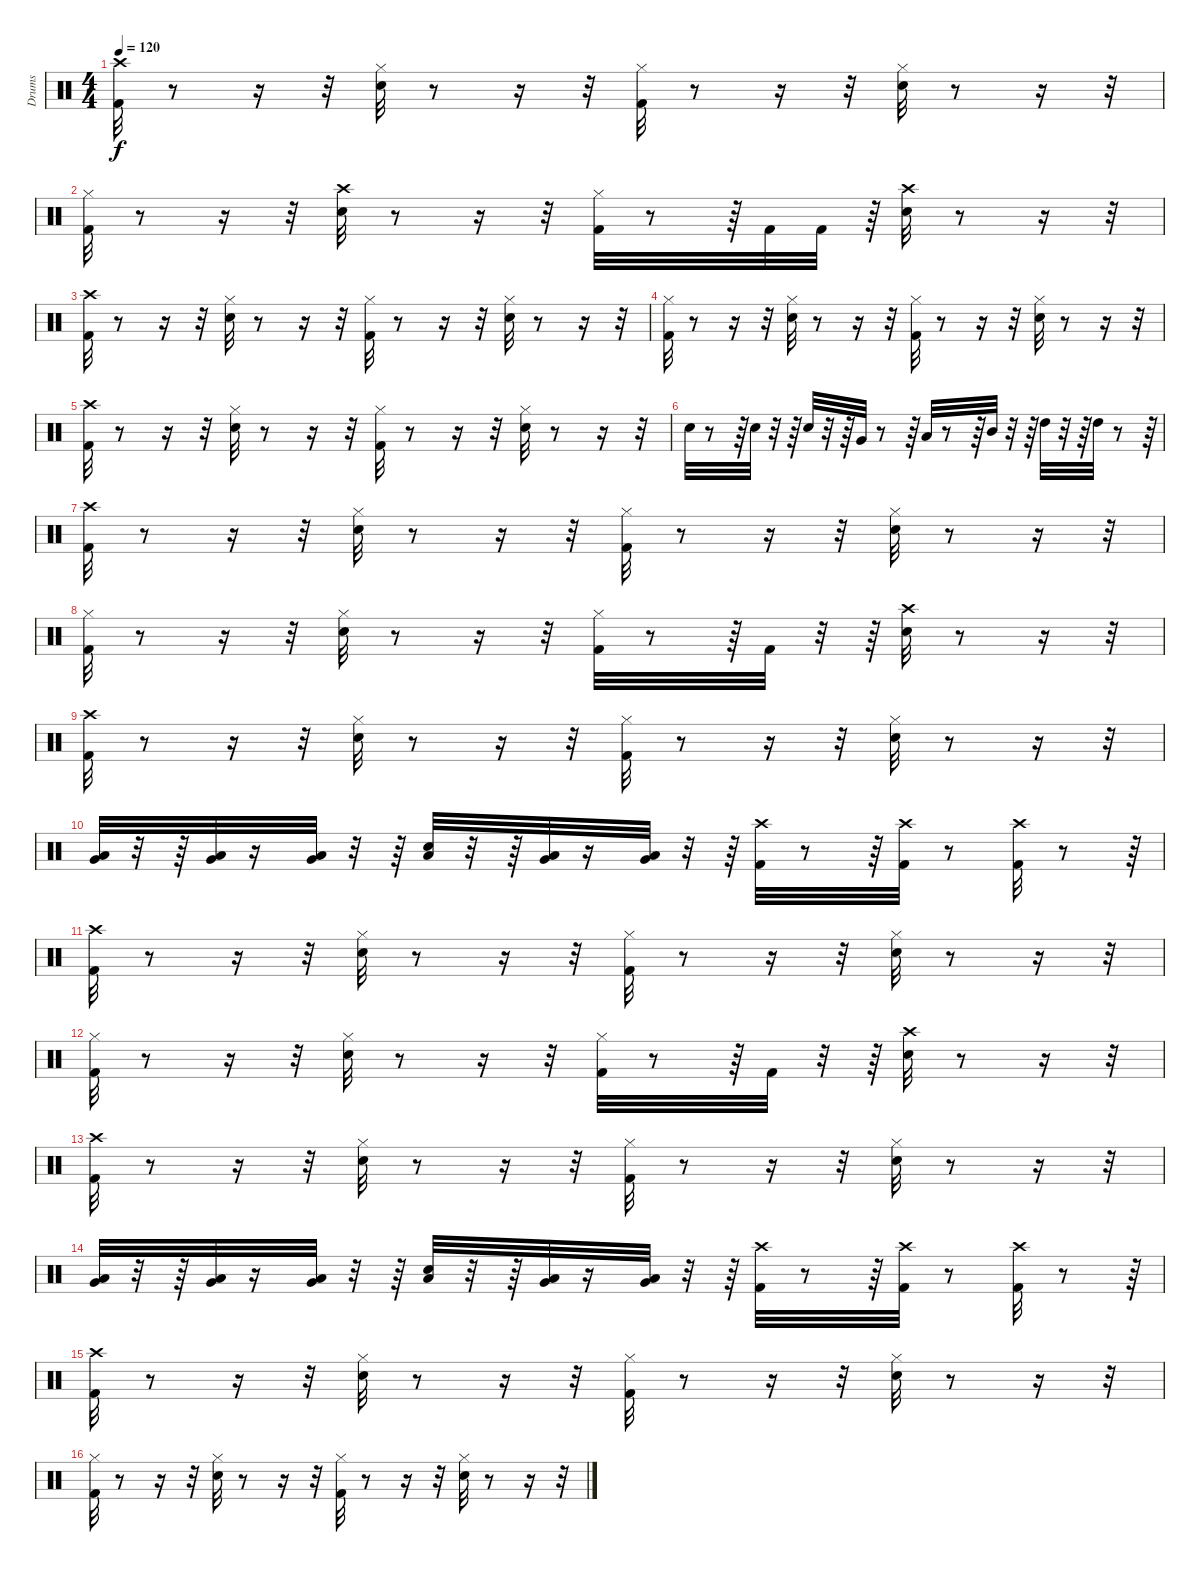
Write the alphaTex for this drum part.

\track ("Drums" "Drums") {instrument percussion}
\staff {score}
\articulation defaults
\ts (4 4)
\tempo 120
\clef neutral
\ks c
("Kick (hit) 2" "Crash high (hit)").32{dy f} r.8 r.16 r.32 ("Electric Snare (hit)" "Hi-Hat (closed)").32 r.8 r.16 r.32 ("Kick (hit) 2" "Hi-Hat (closed)").32 r.8 r.16 r.32 ("Electric Snare (hit)" "Hi-Hat (closed)").32 r.8 r.16 r.32 |
("Hi-Hat (closed)" "Kick (hit) 2").32 r.8 r.16 r.32 ("Crash high (hit)" "Electric Snare (hit)").32 r.8 r.16 r.32 ("Kick (hit) 2" "Hi-Hat (closed)").32 r.8 r.64 "Kick (hit) 2".32 "Kick (hit) 2".32 r.64 ("Crash high (hit)" "Electric Snare (hit)").32 r.8 r.16 r.32 |
("Kick (hit) 2" "Crash high (hit)").32 r.8 r.16 r.32 ("Electric Snare (hit)" "Hi-Hat (closed)").32 r.8 r.16 r.32 ("Kick (hit) 2" "Hi-Hat (closed)").32 r.8 r.16 r.32 ("Electric Snare (hit)" "Hi-Hat (closed)").32 r.8 r.16 r.32 |
("Kick (hit) 2" "Hi-Hat (closed)").32 r.8 r.16 r.32 ("Electric Snare (hit)" "Hi-Hat (closed)").32 r.8 r.16 r.32 ("Kick (hit) 2" "Hi-Hat (closed)").32 r.8 r.16 r.32 ("Electric Snare (hit)" "Hi-Hat (closed)").32 r.8 r.16 r.32 |
("Crash high (hit)" "Kick (hit) 2").32 r.8 r.16 r.32 ("Hi-Hat (closed)" "Electric Snare (hit)").32 r.8 r.16 r.32 ("Hi-Hat (closed)" "Kick (hit) 2").32 r.8 r.16 r.32 ("Hi-Hat (closed)" "Electric Snare (hit)").32 r.8 r.16 r.32 |
"Electric Snare (hit)".32 r.8 r.64 "Electric Snare (hit)".32 r.32 r.64 "Electric Snare (hit)".32 r.32 r.64 "Very Low Tom (hit)".32 r.8 r.64 "Low Tom (hit)".32 r.8 r.64 "Mid Tom (hit)".32 r.32 r.64 "High Tom (hit)".32 r.32 r.64 "High Tom (hit)".32 r.8 r.64 |
("Kick (hit) 2" "Crash high (hit)").32 r.8 r.16 r.32 ("Electric Snare (hit)" "Hi-Hat (closed)").32 r.8 r.16 r.32 ("Kick (hit) 2" "Hi-Hat (closed)").32 r.8 r.16 r.32 ("Electric Snare (hit)" "Hi-Hat (closed)").32 r.8 r.16 r.32 |
("Hi-Hat (closed)" "Kick (hit) 2").32 r.8 r.16 r.32 ("Electric Snare (hit)" "Hi-Hat (closed)").32 r.8 r.16 r.32 ("Kick (hit) 2" "Hi-Hat (closed)").32 r.8 r.64 "Kick (hit) 2".32 r.32 r.64 ("Crash high (hit)" "Electric Snare (hit)").32 r.8 r.16 r.32 |
("Kick (hit) 2" "Crash high (hit)").32 r.8 r.16 r.32 ("Electric Snare (hit)" "Hi-Hat (closed)").32 r.8 r.16 r.32 ("Kick (hit) 2" "Hi-Hat (closed)").32 r.8 r.16 r.32 ("Electric Snare (hit)" "Hi-Hat (closed)").32 r.8 r.16 r.32 |
("Low Tom (hit)" "Very Low Tom (hit)").32 r.32 r.64 ("Low Tom (hit)" "Very Low Tom (hit)").32 r.16 ("Low Tom (hit)" "Very Low Tom (hit)").32 r.32 r.64 ("Electric Snare (hit)" "Low Tom (hit)").32 r.32 r.64 ("Low Tom (hit)" "Very Low Tom (hit)").32 r.16 ("Low Tom (hit)" "Very Low Tom (hit)").32 r.32 r.64 ("Kick (hit) 2" "Crash high (hit)").32 r.8 r.64 ("Kick (hit) 2" "Crash high (hit)").32 r.8 ("Kick (hit) 2" "Crash high (hit)").32 r.8 r.64 |
("Kick (hit) 2" "Crash high (hit)").32 r.8 r.16 r.32 ("Electric Snare (hit)" "Hi-Hat (closed)").32 r.8 r.16 r.32 ("Kick (hit) 2" "Hi-Hat (closed)").32 r.8 r.16 r.32 ("Electric Snare (hit)" "Hi-Hat (closed)").32 r.8 r.16 r.32 |
("Hi-Hat (closed)" "Kick (hit) 2").32 r.8 r.16 r.32 ("Electric Snare (hit)" "Hi-Hat (closed)").32 r.8 r.16 r.32 ("Kick (hit) 2" "Hi-Hat (closed)").32 r.8 r.64 "Kick (hit) 2".32 r.32 r.64 ("Crash high (hit)" "Electric Snare (hit)").32 r.8 r.16 r.32 |
("Kick (hit) 2" "Crash high (hit)").32 r.8 r.16 r.32 ("Electric Snare (hit)" "Hi-Hat (closed)").32 r.8 r.16 r.32 ("Kick (hit) 2" "Hi-Hat (closed)").32 r.8 r.16 r.32 ("Electric Snare (hit)" "Hi-Hat (closed)").32 r.8 r.16 r.32 |
("Low Tom (hit)" "Very Low Tom (hit)").32 r.32 r.64 ("Low Tom (hit)" "Very Low Tom (hit)").32 r.16 ("Low Tom (hit)" "Very Low Tom (hit)").32 r.32 r.64 ("Electric Snare (hit)" "Low Tom (hit)").32 r.32 r.64 ("Low Tom (hit)" "Very Low Tom (hit)").32 r.16 ("Low Tom (hit)" "Very Low Tom (hit)").32 r.32 r.64 ("Kick (hit) 2" "Crash high (hit)").32 r.8 r.64 ("Kick (hit) 2" "Crash high (hit)").32 r.8 ("Kick (hit) 2" "Crash high (hit)").32 r.8 r.64 |
("Kick (hit) 2" "Crash high (hit)").32 r.8 r.16 r.32 ("Electric Snare (hit)" "Hi-Hat (closed)").32 r.8 r.16 r.32 ("Kick (hit) 2" "Hi-Hat (closed)").32 r.8 r.16 r.32 ("Electric Snare (hit)" "Hi-Hat (closed)").32 r.8 r.16 r.32 |
("Kick (hit) 2" "Hi-Hat (closed)").32 r.8 r.16 r.32 ("Electric Snare (hit)" "Hi-Hat (closed)").32 r.8 r.16 r.32 ("Kick (hit) 2" "Hi-Hat (closed)").32 r.8 r.16 r.32 ("Electric Snare (hit)" "Hi-Hat (closed)").32 r.8 r.16 r.32
